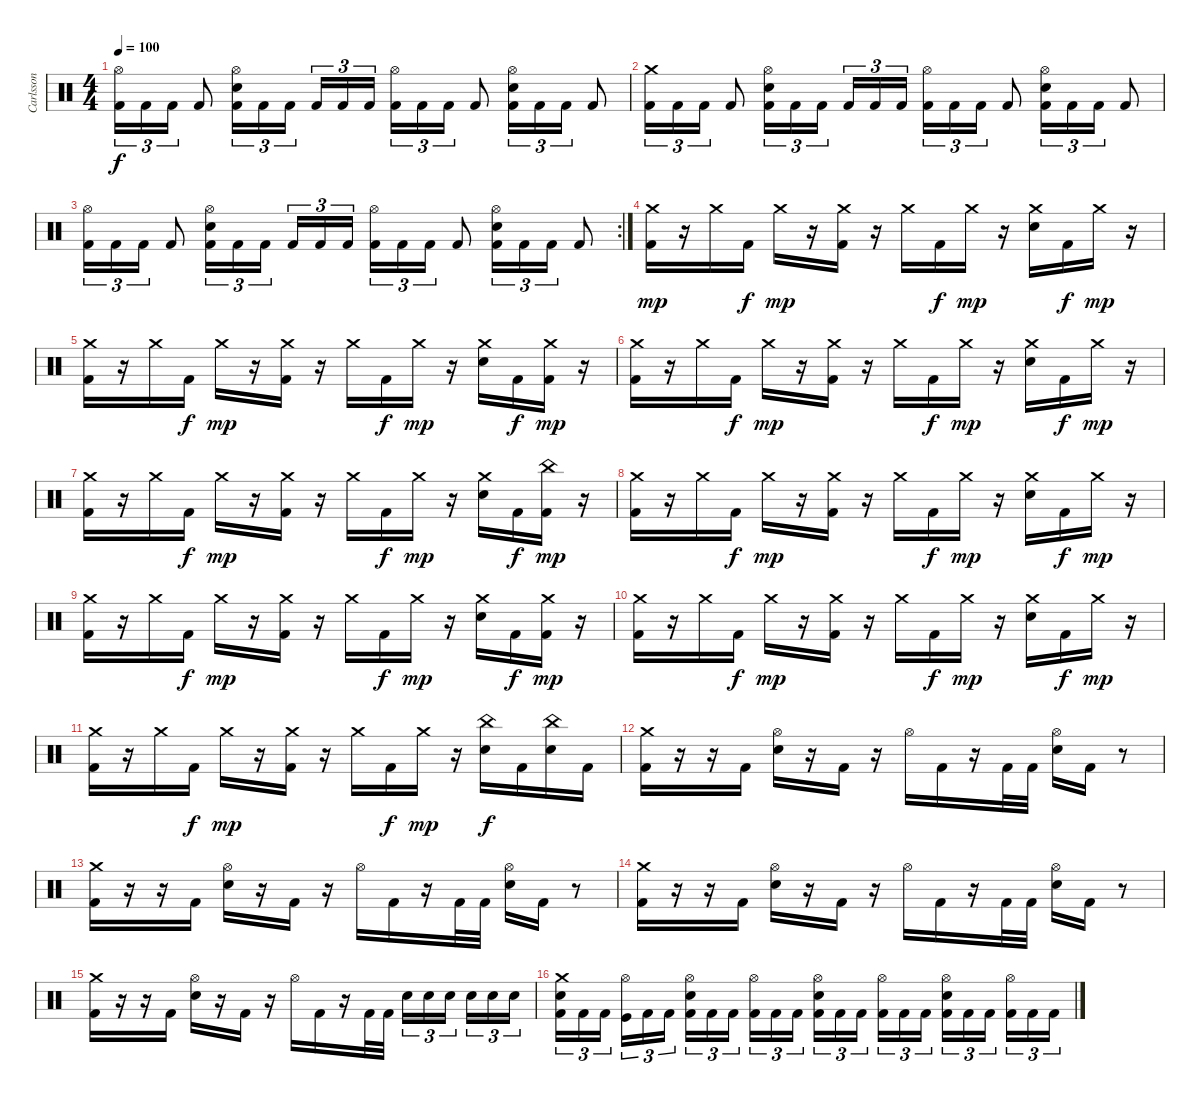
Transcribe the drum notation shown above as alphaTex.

\track ("Carlsson" "Carlsson") {instrument percussion}
\staff {score}
\articulation defaults
\ts (4 4)
\tempo 100
\clef neutral
\ks c
("Hi-Hat (open)" "Kick (hit) 2").16{tu (3 2) dy f} "Kick (hit) 2".16{tu (3 2)} "Kick (hit) 2".16{tu (3 2)} "Kick (hit) 2".8 ("Hi-Hat (open)" "Electric Snare (hit)" "Kick (hit) 2").16{tu (3 2)} "Kick (hit) 2".16{tu (3 2)} "Kick (hit) 2".16{tu (3 2)} "Kick (hit) 2".16{tu (3 2)} "Kick (hit) 2".16{tu (3 2)} "Kick (hit) 2".16{tu (3 2)} ("Hi-Hat (open)" "Kick (hit) 2").16{tu (3 2)} "Kick (hit) 2".16{tu (3 2)} "Kick (hit) 2".16{tu (3 2)} "Kick (hit) 2".8 ("Hi-Hat (open)" "Electric Snare (hit)" "Kick (hit) 2").16{tu (3 2)} "Kick (hit) 2".16{tu (3 2)} "Kick (hit) 2".16{tu (3 2)} "Kick (hit) 2".8 |
("Crash medium (hit)" "Kick (hit) 2").16{tu (3 2)} "Kick (hit) 2".16{tu (3 2)} "Kick (hit) 2".16{tu (3 2)} "Kick (hit) 2".8 ("Hi-Hat (open)" "Electric Snare (hit)" "Kick (hit) 2").16{tu (3 2)} "Kick (hit) 2".16{tu (3 2)} "Kick (hit) 2".16{tu (3 2)} "Kick (hit) 2".16{tu (3 2)} "Kick (hit) 2".16{tu (3 2)} "Kick (hit) 2".16{tu (3 2)} ("Hi-Hat (open)" "Kick (hit) 2").16{tu (3 2)} "Kick (hit) 2".16{tu (3 2)} "Kick (hit) 2".16{tu (3 2)} "Kick (hit) 2".8 ("Hi-Hat (open)" "Electric Snare (hit)" "Kick (hit) 2").16{tu (3 2)} "Kick (hit) 2".16{tu (3 2)} "Kick (hit) 2".16{tu (3 2)} "Kick (hit) 2".8 |
\rc 2
("Hi-Hat (open)" "Kick (hit) 2").16{tu (3 2)} "Kick (hit) 2".16{tu (3 2)} "Kick (hit) 2".16{tu (3 2)} "Kick (hit) 2".8 ("Hi-Hat (open)" "Electric Snare (hit)" "Kick (hit) 2").16{tu (3 2)} "Kick (hit) 2".16{tu (3 2)} "Kick (hit) 2".16{tu (3 2)} "Kick (hit) 2".16{tu (3 2)} "Kick (hit) 2".16{tu (3 2)} "Kick (hit) 2".16{tu (3 2)} ("Hi-Hat (open)" "Kick (hit) 2").16{tu (3 2)} "Kick (hit) 2".16{tu (3 2)} "Kick (hit) 2".16{tu (3 2)} "Kick (hit) 2".8 ("Hi-Hat (open)" "Electric Snare (hit)" "Kick (hit) 2").16{tu (3 2)} "Kick (hit) 2".16{tu (3 2)} "Kick (hit) 2".16{tu (3 2)} "Kick (hit) 2".8 |
("Crash medium (hit)" "Kick (hit) 2").16{dy mp} r.16 "Crash medium (hit)".16 "Kick (hit) 2".16{dy f} "Crash medium (hit)".16{dy mp} r.16 ("Crash medium (hit)" "Kick (hit) 2").16 r.16 "Crash medium (hit)".16 "Kick (hit) 2".16{dy f} "Crash medium (hit)".16{dy mp} r.16 ("Crash medium (hit)" "Electric Snare (hit)").16 "Kick (hit) 2".16{dy f} "Crash medium (hit)".16{dy mp} r.16 |
("Crash medium (hit)" "Kick (hit) 2").16 r.16 "Crash medium (hit)".16 "Kick (hit) 2".16{dy f} "Crash medium (hit)".16{dy mp} r.16 ("Crash medium (hit)" "Kick (hit) 2").16 r.16 "Crash medium (hit)".16 "Kick (hit) 2".16{dy f} "Crash medium (hit)".16{dy mp} r.16 ("Crash medium (hit)" "Electric Snare (hit)").16 "Kick (hit) 2".16{dy f} ("Crash medium (hit)" "Kick (hit) 2").16{dy mp} r.16 |
("Crash medium (hit)" "Kick (hit) 2").16 r.16 "Crash medium (hit)".16 "Kick (hit) 2".16{dy f} "Crash medium (hit)".16{dy mp} r.16 ("Crash medium (hit)" "Kick (hit) 2").16 r.16 "Crash medium (hit)".16 "Kick (hit) 2".16{dy f} "Crash medium (hit)".16{dy mp} r.16 ("Crash medium (hit)" "Electric Snare (hit)").16 "Kick (hit) 2".16{dy f} "Crash medium (hit)".16{dy mp} r.16 |
("Crash medium (hit)" "Kick (hit) 2").16 r.16 "Crash medium (hit)".16 "Kick (hit) 2".16{dy f} "Crash medium (hit)".16{dy mp} r.16 ("Crash medium (hit)" "Kick (hit) 2").16 r.16 "Crash medium (hit)".16 "Kick (hit) 2".16{dy f} "Crash medium (hit)".16{dy mp} r.16 ("Crash medium (hit)" "Electric Snare (hit)").16 "Kick (hit) 2".16{dy f} ("China (hit)" "Kick (hit) 2").16{dy mp} r.16 |
("Crash medium (hit)" "Kick (hit) 2").16 r.16 "Crash medium (hit)".16 "Kick (hit) 2".16{dy f} "Crash medium (hit)".16{dy mp} r.16 ("Crash medium (hit)" "Kick (hit) 2").16 r.16 "Crash medium (hit)".16 "Kick (hit) 2".16{dy f} "Crash medium (hit)".16{dy mp} r.16 ("Crash medium (hit)" "Electric Snare (hit)").16 "Kick (hit) 2".16{dy f} "Crash medium (hit)".16{dy mp} r.16 |
("Crash medium (hit)" "Kick (hit) 2").16 r.16 "Crash medium (hit)".16 "Kick (hit) 2".16{dy f} "Crash medium (hit)".16{dy mp} r.16 ("Crash medium (hit)" "Kick (hit) 2").16 r.16 "Crash medium (hit)".16 "Kick (hit) 2".16{dy f} "Crash medium (hit)".16{dy mp} r.16 ("Crash medium (hit)" "Electric Snare (hit)").16 "Kick (hit) 2".16{dy f} ("Crash medium (hit)" "Kick (hit) 2").16{dy mp} r.16 |
("Crash medium (hit)" "Kick (hit) 2").16 r.16 "Crash medium (hit)".16 "Kick (hit) 2".16{dy f} "Crash medium (hit)".16{dy mp} r.16 ("Crash medium (hit)" "Kick (hit) 2").16 r.16 "Crash medium (hit)".16 "Kick (hit) 2".16{dy f} "Crash medium (hit)".16{dy mp} r.16 ("Crash medium (hit)" "Electric Snare (hit)").16 "Kick (hit) 2".16{dy f} "Crash medium (hit)".16{dy mp} r.16 |
("Crash medium (hit)" "Kick (hit) 2").16 r.16 "Crash medium (hit)".16 "Kick (hit) 2".16{dy f} "Crash medium (hit)".16{dy mp} r.16 ("Crash medium (hit)" "Kick (hit) 2").16 r.16 "Crash medium (hit)".16 "Kick (hit) 2".16{dy f} "Crash medium (hit)".16{dy mp} r.16 ("China (hit)" "Electric Snare (hit)").16{dy f} "Kick (hit) 2".16 ("China (hit)" "Electric Snare (hit)").16 "Kick (hit) 2".16 |
("Crash medium (hit)" "Kick (hit) 2").16 r.16 r.16 "Kick (hit) 2".16 ("Hi-Hat (open)" "Electric Snare (hit)").16 r.16 "Kick (hit) 2".16 r.16 "Hi-Hat (open)".16 "Kick (hit) 2".16 r.16 "Kick (hit) 2".32 "Kick (hit) 2".32 ("Hi-Hat (open)" "Electric Snare (hit)").16 "Kick (hit) 2".16 r.8 |
("Crash medium (hit)" "Kick (hit) 2").16 r.16 r.16 "Kick (hit) 2".16 ("Hi-Hat (open)" "Electric Snare (hit)").16 r.16 "Kick (hit) 2".16 r.16 "Hi-Hat (open)".16 "Kick (hit) 2".16 r.16 "Kick (hit) 2".32 "Kick (hit) 2".32 ("Hi-Hat (open)" "Electric Snare (hit)").16 "Kick (hit) 2".16 r.8 |
("Crash medium (hit)" "Kick (hit) 2").16 r.16 r.16 "Kick (hit) 2".16 ("Hi-Hat (open)" "Electric Snare (hit)").16 r.16 "Kick (hit) 2".16 r.16 "Hi-Hat (open)".16 "Kick (hit) 2".16 r.16 "Kick (hit) 2".32 "Kick (hit) 2".32 ("Hi-Hat (open)" "Electric Snare (hit)").16 "Kick (hit) 2".16 r.8 |
("Crash medium (hit)" "Kick (hit) 2").16 r.16 r.16 "Kick (hit) 2".16 ("Hi-Hat (open)" "Electric Snare (hit)").16 r.16 "Kick (hit) 2".16 r.16 "Hi-Hat (open)".16 "Kick (hit) 2".16 r.16 "Kick (hit) 2".32 "Kick (hit) 2".32 "Electric Snare (hit)".16{tu (3 2)} "Electric Snare (hit)".16{tu (3 2)} "Electric Snare (hit)".16{tu (3 2)} "Electric Snare (hit)".16{tu (3 2)} "Electric Snare (hit)".16{tu (3 2)} "Electric Snare (hit)".16{tu (3 2)} |
("Crash medium (hit)" "Electric Snare (hit)" "Kick (hit) 2").16{tu (3 2)} "Kick (hit) 2".16{tu (3 2)} "Kick (hit) 2".16{tu (3 2)} ("Hi-Hat (open)" "Kick (hit)").16{tu (3 2)} "Kick (hit) 2".16{tu (3 2)} "Kick (hit) 2".16{tu (3 2)} ("Hi-Hat (open)" "Electric Snare (hit)" "Kick (hit) 2").16{tu (3 2)} "Kick (hit) 2".16{tu (3 2)} "Kick (hit) 2".16{tu (3 2)} ("Hi-Hat (open)" "Kick (hit) 2").16{tu (3 2)} "Kick (hit) 2".16{tu (3 2)} "Kick (hit) 2".16{tu (3 2)} ("Hi-Hat (open)" "Electric Snare (hit)" "Kick (hit) 2").16{tu (3 2)} "Kick (hit) 2".16{tu (3 2)} "Kick (hit) 2".16{tu (3 2)} ("Hi-Hat (open)" "Kick (hit) 2").16{tu (3 2)} "Kick (hit) 2".16{tu (3 2)} "Kick (hit) 2".16{tu (3 2)} ("Hi-Hat (open)" "Electric Snare (hit)" "Kick (hit) 2").16{tu (3 2)} "Kick (hit) 2".16{tu (3 2)} "Kick (hit) 2".16{tu (3 2)} ("Hi-Hat (open)" "Kick (hit) 2").16{tu (3 2)} "Kick (hit) 2".16{tu (3 2)} "Kick (hit) 2".16{tu (3 2)}
